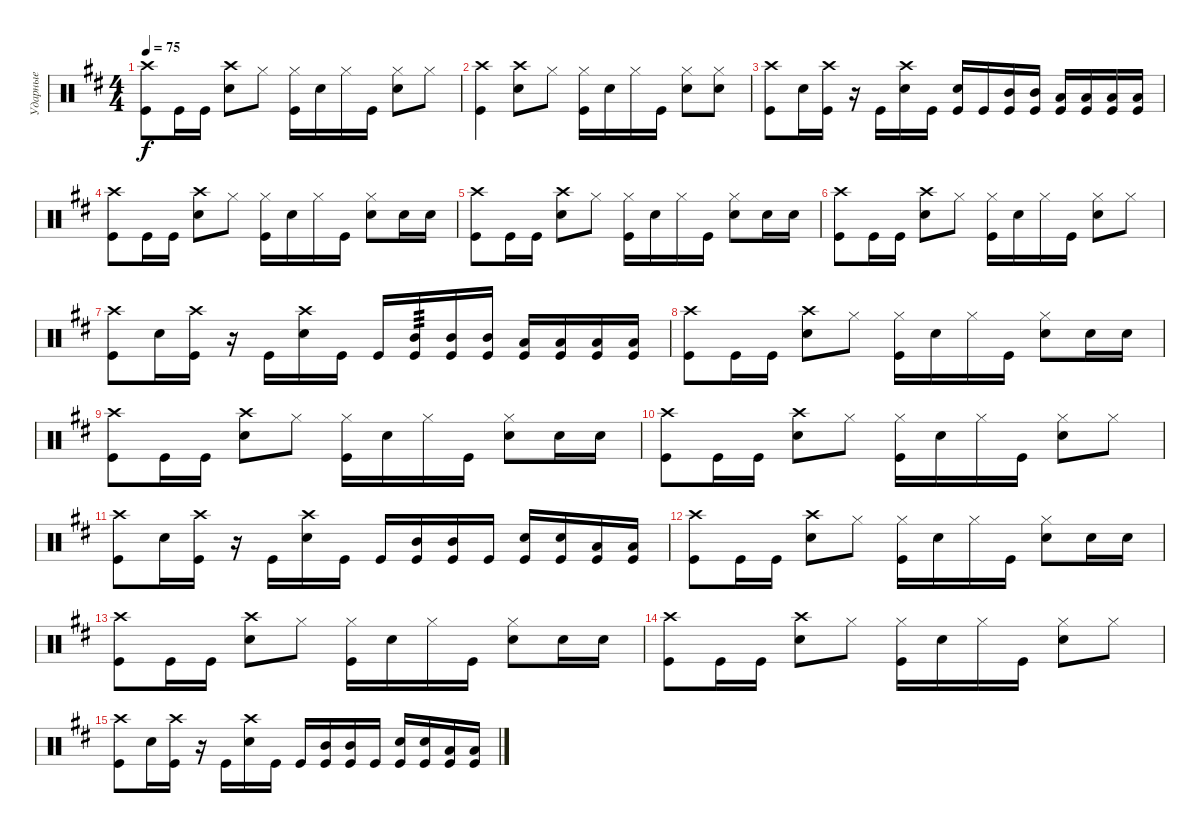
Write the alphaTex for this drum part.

\track ("Ударные" "Ударные") {instrument percussion}
\staff {score}
\articulation defaults
\ts (4 4)
\tempo 75
\clef neutral
\ks bminor
("Crash high (hit)" "Kick (hit)").8{dy f} "Kick (hit)".16 "Kick (hit)".16 ("Snare (hit) 2" "Crash high (hit)").8 "Hi-Hat (closed)".8 ("Kick (hit)" "Hi-Hat (closed)").16 "Snare (hit) 2".16 "Hi-Hat (closed)".16 "Kick (hit)".16 ("Snare (hit) 2" "Hi-Hat (closed)").8 "Hi-Hat (closed)".8 |
("Crash high (hit)" "Kick (hit)").4 ("Snare (hit) 2" "Crash high (hit)").8 "Hi-Hat (closed)".8 ("Kick (hit)" "Hi-Hat (closed)").16 "Snare (hit) 2".16 "Hi-Hat (closed)".16 "Kick (hit)".16 ("Snare (hit) 2" "Hi-Hat (closed)").8 ("Snare (hit) 2" "Hi-Hat (closed)").8 |
("Kick (hit)" "Crash high (hit)").8 "Snare (hit) 2".16 ("Kick (hit)" "Crash high (hit)").16 r.16 "Kick (hit)".16 ("Crash high (hit)" "Snare (hit) 2").16 "Kick (hit)".16 ("Kick (hit)" "Snare (hit) 2").16 "Kick (hit)".16{bd 120} ("Mid Tom (hit)" "Kick (hit)").16 ("Kick (hit)" "Mid Tom (hit)").16 ("Low Tom (hit)" "Kick (hit)").16{bd 120} ("Kick (hit)" "Low Tom (hit)").16{bd 120} ("Low Tom (hit)" "Kick (hit)").16 ("Low Tom (hit)" "Kick (hit)").16 |
("Crash high (hit)" "Kick (hit)").8 "Kick (hit)".16 "Kick (hit)".16 ("Snare (hit) 2" "Crash high (hit)").8 "Hi-Hat (closed)".8 ("Kick (hit)" "Hi-Hat (closed)").16 "Snare (hit) 2".16 "Hi-Hat (closed)".16 "Kick (hit)".16 ("Snare (hit) 2" "Hi-Hat (closed)").8 "Snare (hit) 2".16 "Snare (hit) 2".16 |
("Crash high (hit)" "Kick (hit)").8 "Kick (hit)".16 "Kick (hit)".16 ("Snare (hit) 2" "Crash high (hit)").8 "Hi-Hat (closed)".8 ("Kick (hit)" "Hi-Hat (closed)").16 "Snare (hit) 2".16 "Hi-Hat (closed)".16 "Kick (hit)".16 ("Snare (hit) 2" "Hi-Hat (closed)").8 "Snare (hit) 2".16 "Snare (hit) 2".16 |
("Crash high (hit)" "Kick (hit)").8 "Kick (hit)".16 "Kick (hit)".16 ("Snare (hit) 2" "Crash high (hit)").8 "Hi-Hat (closed)".8 ("Kick (hit)" "Hi-Hat (closed)").16 "Snare (hit) 2".16 "Hi-Hat (closed)".16 "Kick (hit)".16 ("Snare (hit) 2" "Hi-Hat (closed)").8 "Hi-Hat (closed)".8 |
("Kick (hit)" "Crash high (hit)").8 "Snare (hit) 2".16 ("Kick (hit)" "Crash high (hit)").16 r.16 "Kick (hit)".16 ("Crash high (hit)" "Snare (hit) 2").16 "Kick (hit)".16 "Kick (hit)".16 ("Kick (hit)" "Mid Tom (hit)").16{bd 120 tp 3} ("Mid Tom (hit)" "Kick (hit)").16 ("Kick (hit)" "Mid Tom (hit)").16 ("Low Tom (hit)" "Kick (hit)").16{bd 120} ("Kick (hit)" "Low Tom (hit)").16{bd 120} ("Low Tom (hit)" "Kick (hit)").16 ("Low Tom (hit)" "Kick (hit)").16 |
("Crash high (hit)" "Kick (hit)").8 "Kick (hit)".16 "Kick (hit)".16 ("Snare (hit) 2" "Crash high (hit)").8 "Hi-Hat (closed)".8 ("Kick (hit)" "Hi-Hat (closed)").16 "Snare (hit) 2".16 "Hi-Hat (closed)".16 "Kick (hit)".16 ("Snare (hit) 2" "Hi-Hat (closed)").8 "Snare (hit) 2".16 "Snare (hit) 2".16 |
("Crash high (hit)" "Kick (hit)").8 "Kick (hit)".16 "Kick (hit)".16 ("Snare (hit) 2" "Crash high (hit)").8 "Hi-Hat (closed)".8 ("Kick (hit)" "Hi-Hat (closed)").16 "Snare (hit) 2".16 "Hi-Hat (closed)".16 "Kick (hit)".16 ("Snare (hit) 2" "Hi-Hat (closed)").8 "Snare (hit) 2".16 "Snare (hit) 2".16 |
("Crash high (hit)" "Kick (hit)").8 "Kick (hit)".16 "Kick (hit)".16 ("Snare (hit) 2" "Crash high (hit)").8 "Hi-Hat (closed)".8 ("Kick (hit)" "Hi-Hat (closed)").16 "Snare (hit) 2".16 "Hi-Hat (closed)".16 "Kick (hit)".16 ("Snare (hit) 2" "Hi-Hat (closed)").8 "Hi-Hat (closed)".8 |
("Kick (hit)" "Crash high (hit)").8 "Snare (hit) 2".16 ("Kick (hit)" "Crash high (hit)").16 r.16 "Kick (hit)".16 ("Crash high (hit)" "Snare (hit) 2").16 "Kick (hit)".16 "Kick (hit)".16 ("Mid Tom (hit)" "Kick (hit)").16{bd 120} ("Mid Tom (hit)" "Kick (hit)").16 "Kick (hit)".16 ("Snare (hit) 2" "Kick (hit)").16{bd 120} ("Kick (hit)" "Snare (hit) 2").16{bd 120} ("Low Tom (hit)" "Kick (hit)").16 ("Low Tom (hit)" "Kick (hit)").16 |
("Crash high (hit)" "Kick (hit)").8{volume 0} "Kick (hit)".16 "Kick (hit)".16 ("Snare (hit) 2" "Crash high (hit)").8 "Hi-Hat (closed)".8 ("Kick (hit)" "Hi-Hat (closed)").16 "Snare (hit) 2".16 "Hi-Hat (closed)".16 "Kick (hit)".16 ("Snare (hit) 2" "Hi-Hat (closed)").8 "Snare (hit) 2".16 "Snare (hit) 2".16 |
("Crash high (hit)" "Kick (hit)").8 "Kick (hit)".16 "Kick (hit)".16 ("Snare (hit) 2" "Crash high (hit)").8 "Hi-Hat (closed)".8 ("Kick (hit)" "Hi-Hat (closed)").16 "Snare (hit) 2".16 "Hi-Hat (closed)".16 "Kick (hit)".16 ("Snare (hit) 2" "Hi-Hat (closed)").8 "Snare (hit) 2".16 "Snare (hit) 2".16 |
("Crash high (hit)" "Kick (hit)").8 "Kick (hit)".16 "Kick (hit)".16 ("Snare (hit) 2" "Crash high (hit)").8 "Hi-Hat (closed)".8 ("Kick (hit)" "Hi-Hat (closed)").16 "Snare (hit) 2".16 "Hi-Hat (closed)".16 "Kick (hit)".16 ("Snare (hit) 2" "Hi-Hat (closed)").8 "Hi-Hat (closed)".8 |
("Kick (hit)" "Crash high (hit)").8 "Snare (hit) 2".16 ("Kick (hit)" "Crash high (hit)").16 r.16 "Kick (hit)".16 ("Crash high (hit)" "Snare (hit) 2").16 "Kick (hit)".16 "Kick (hit)".16 ("Mid Tom (hit)" "Kick (hit)").16{bd 120} ("Mid Tom (hit)" "Kick (hit)").16 "Kick (hit)".16 ("Snare (hit) 2" "Kick (hit)").16{bd 120} ("Kick (hit)" "Snare (hit) 2").16{bd 120} ("Low Tom (hit)" "Kick (hit)").16 ("Low Tom (hit)" "Kick (hit)").16
